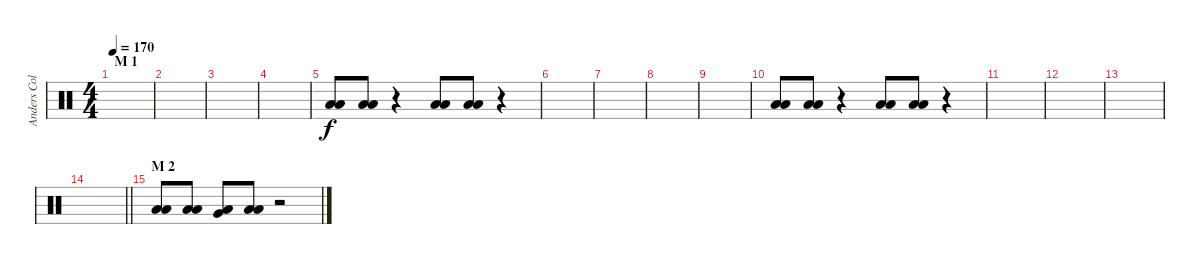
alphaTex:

\track ("Anders Colsefni" "Anders Col") {instrument percussion}
\staff {score}
\articulation defaults
\ts (4 4)
\section ("" "M 1")
\tempo 170
\clef neutral
\ks c
|
|
|
|
("Low Floor Tom (hit)" "Low Floor Tom (hit)").8 ("Low Floor Tom (hit)" "Low Floor Tom (hit)").8 r.4 ("Low Floor Tom (hit)" "Low Floor Tom (hit)").8 ("Low Floor Tom (hit)" "Low Floor Tom (hit)").8 r.4 |
|
|
|
|
("Low Floor Tom (hit)" "Low Floor Tom (hit)").8 ("Low Floor Tom (hit)" "Low Floor Tom (hit)").8 r.4 ("Low Floor Tom (hit)" "Low Floor Tom (hit)").8 ("Low Floor Tom (hit)" "Low Floor Tom (hit)").8 r.4 |
|
|
|
\barLineRight lightlight
|
\section ("" "M 2")
("Low Floor Tom (hit)" "Low Floor Tom (hit)").8 ("Low Floor Tom (hit)" "Low Floor Tom (hit)").8 ("Very Low Tom (hit)" "Low Floor Tom (hit)").8 ("Low Floor Tom (hit)" "Low Floor Tom (hit)").8 r.2
